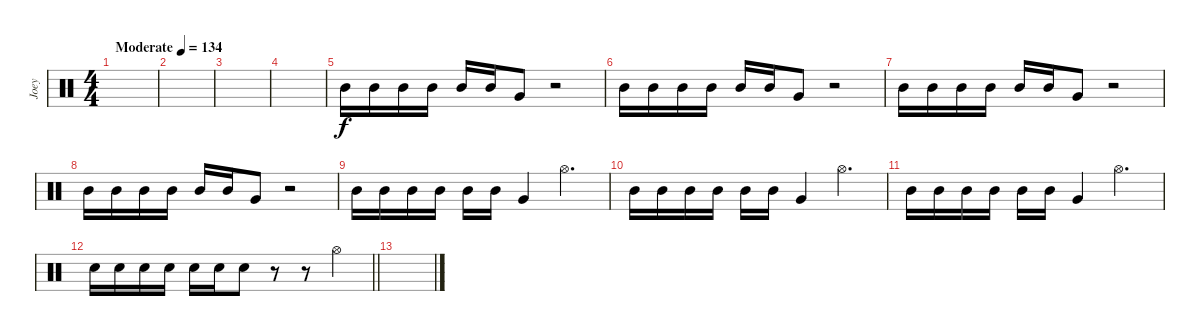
\track ("Joey" "Joey") {instrument percussion}
\staff {score}
\articulation defaults
\ts (4 4)
\tempo (134 "Moderate")
\clef neutral
\ks c
|
|
|
|
"Mid Tom (hit)".16 "Mid Tom (hit)".16 "Mid Tom (hit)".16 "Mid Tom (hit)".16 "Mid Tom (hit)".16 "Mid Tom (hit)".16 "Very Low Tom (hit)".8 r.2 |
"Mid Tom (hit)".16 "Mid Tom (hit)".16 "Mid Tom (hit)".16 "Mid Tom (hit)".16 "Mid Tom (hit)".16 "Mid Tom (hit)".16 "Very Low Tom (hit)".8 r.2 |
"Mid Tom (hit)".16 "Mid Tom (hit)".16 "Mid Tom (hit)".16 "Mid Tom (hit)".16 "Mid Tom (hit)".16 "Mid Tom (hit)".16 "Very Low Tom (hit)".8 r.2 |
"Mid Tom (hit)".16 "Mid Tom (hit)".16 "Mid Tom (hit)".16 "Mid Tom (hit)".16 "Mid Tom (hit)".16 "Mid Tom (hit)".16 "Very Low Tom (hit)".8 r.2 |
"Mid Tom (hit)".16 "Mid Tom (hit)".16 "Mid Tom (hit)".16 "Mid Tom (hit)".16 "Mid Tom (hit)".16 "Mid Tom (hit)".16 "Very Low Tom (hit)".4 "Hi-Hat (open)".4{d} |
"Mid Tom (hit)".16 "Mid Tom (hit)".16 "Mid Tom (hit)".16 "Mid Tom (hit)".16 "Mid Tom (hit)".16 "Mid Tom (hit)".16 "Very Low Tom (hit)".4 "Hi-Hat (open)".4{d} |
"Mid Tom (hit)".16 "Mid Tom (hit)".16 "Mid Tom (hit)".16 "Mid Tom (hit)".16 "Mid Tom (hit)".16 "Mid Tom (hit)".16 "Very Low Tom (hit)".4 "Hi-Hat (open)".4{d} |
\barLineRight lightlight "Electric Snare (hit)".16 "Electric Snare (hit)".16 "Electric Snare (hit)".16 "Electric Snare (hit)".16 "Electric Snare (hit)".16 "Electric Snare (hit)".16 "Electric Snare (hit)".8
r.8 r.8 "Hi-Hat (open)".4 |
\section ("" "")
